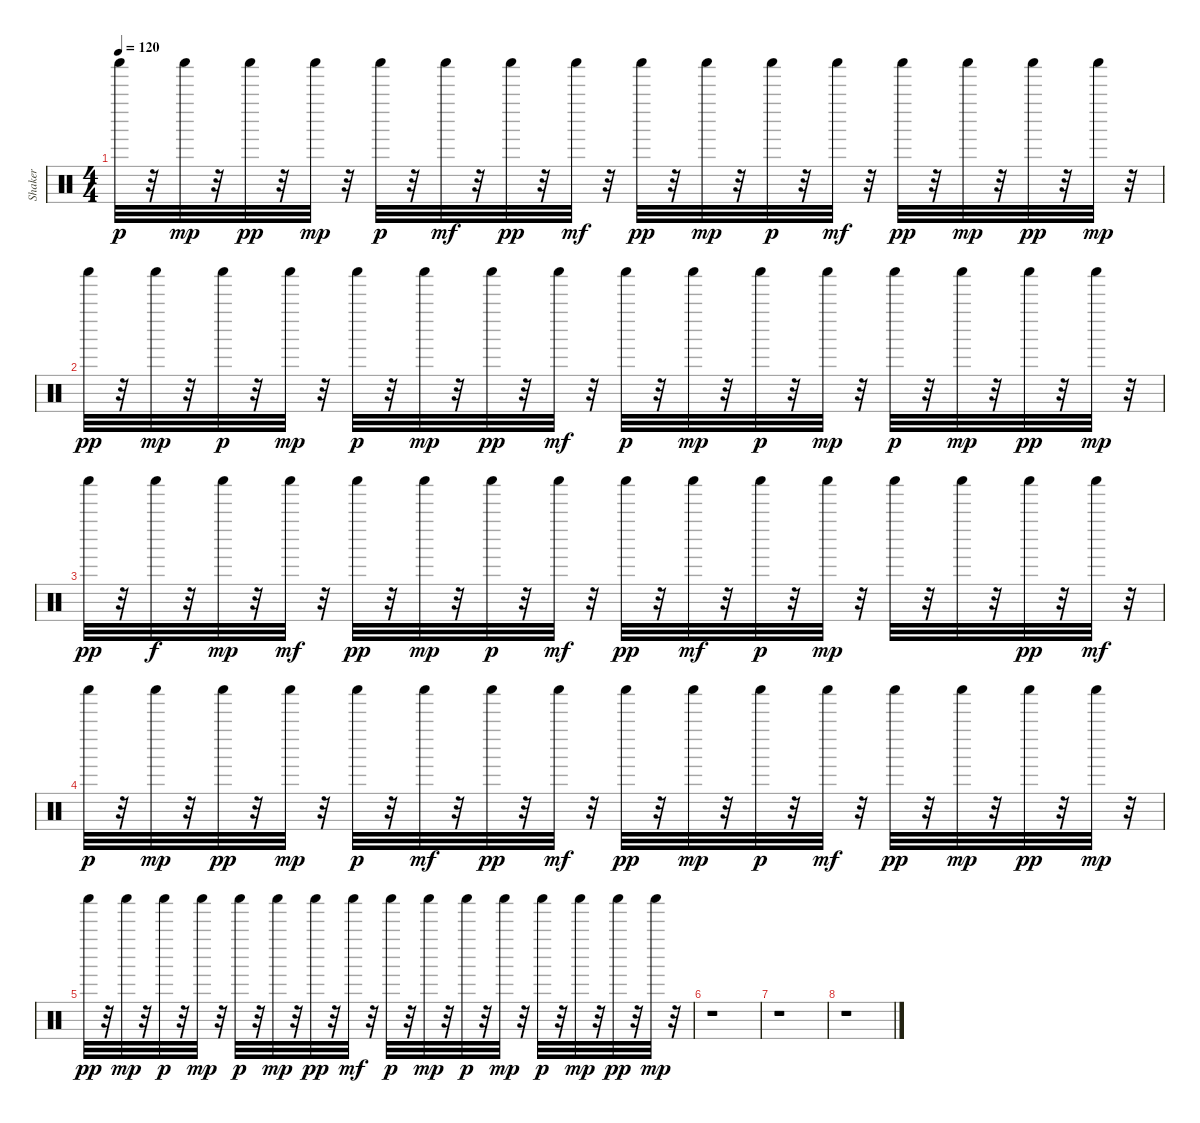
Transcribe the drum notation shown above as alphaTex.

\track ("Shaker" "Shaker") {instrument percussion}
\staff {score}
\articulation defaults
\ts (4 4)
\tempo 120
\clef neutral
\ks c "Shaker (hit)".32{dy p}
r.32 "Shaker (hit)".32{dy mp} r.32 "Shaker (hit)".32{dy pp} r.32 "Shaker (hit)".32{dy mp} r.32 "Shaker (hit)".32{dy p} r.32 "Shaker (hit)".32{dy mf} r.32 "Shaker (hit)".32{dy pp} r.32 "Shaker (hit)".32{dy mf} r.32 "Shaker (hit)".32{dy pp} r.32 "Shaker (hit)".32{dy mp} r.32 "Shaker (hit)".32{dy p} r.32 "Shaker (hit)".32{dy mf} r.32 "Shaker (hit)".32{dy pp} r.32 "Shaker (hit)".32{dy mp} r.32 "Shaker (hit)".32{dy pp} r.32 "Shaker (hit)".32{dy mp} r.32 |
"Shaker (hit)".32{dy pp} r.32 "Shaker (hit)".32{dy mp} r.32 "Shaker (hit)".32{dy p} r.32 "Shaker (hit)".32{dy mp} r.32 "Shaker (hit)".32{dy p} r.32 "Shaker (hit)".32{dy mp} r.32 "Shaker (hit)".32{dy pp} r.32 "Shaker (hit)".32{dy mf} r.32 "Shaker (hit)".32{dy p} r.32 "Shaker (hit)".32{dy mp} r.32 "Shaker (hit)".32{dy p} r.32 "Shaker (hit)".32{dy mp} r.32 "Shaker (hit)".32{dy p} r.32 "Shaker (hit)".32{dy mp} r.32 "Shaker (hit)".32{dy pp} r.32 "Shaker (hit)".32{dy mp} r.32 |
"Shaker (hit)".32{dy pp} r.32 "Shaker (hit)".32{dy f} r.32 "Shaker (hit)".32{dy mp} r.32 "Shaker (hit)".32{dy mf} r.32 "Shaker (hit)".32{dy pp} r.32 "Shaker (hit)".32{dy mp} r.32 "Shaker (hit)".32{dy p} r.32 "Shaker (hit)".32{dy mf} r.32 "Shaker (hit)".32{dy pp} r.32 "Shaker (hit)".32{dy mf} r.32 "Shaker (hit)".32{dy p} r.32 "Shaker (hit)".32{dy mp} r.32 "Shaker (hit)".32 r.32 "Shaker (hit)".32 r.32 "Shaker (hit)".32{dy pp} r.32 "Shaker (hit)".32{dy mf} r.32 |
"Shaker (hit)".32{dy p} r.32 "Shaker (hit)".32{dy mp} r.32 "Shaker (hit)".32{dy pp} r.32 "Shaker (hit)".32{dy mp} r.32 "Shaker (hit)".32{dy p} r.32 "Shaker (hit)".32{dy mf} r.32 "Shaker (hit)".32{dy pp} r.32 "Shaker (hit)".32{dy mf} r.32 "Shaker (hit)".32{dy pp} r.32 "Shaker (hit)".32{dy mp} r.32 "Shaker (hit)".32{dy p} r.32 "Shaker (hit)".32{dy mf} r.32 "Shaker (hit)".32{dy pp} r.32 "Shaker (hit)".32{dy mp} r.32 "Shaker (hit)".32{dy pp} r.32 "Shaker (hit)".32{dy mp} r.32 |
"Shaker (hit)".32{dy pp} r.32 "Shaker (hit)".32{dy mp} r.32 "Shaker (hit)".32{dy p} r.32 "Shaker (hit)".32{dy mp} r.32 "Shaker (hit)".32{dy p} r.32 "Shaker (hit)".32{dy mp} r.32 "Shaker (hit)".32{dy pp} r.32 "Shaker (hit)".32{dy mf} r.32 "Shaker (hit)".32{dy p} r.32 "Shaker (hit)".32{dy mp} r.32 "Shaker (hit)".32{dy p} r.32 "Shaker (hit)".32{dy mp} r.32 "Shaker (hit)".32{dy p} r.32 "Shaker (hit)".32{dy mp} r.32 "Shaker (hit)".32{dy pp} r.32 "Shaker (hit)".32{dy mp} r.32 |
r.1 |
r.1 |
r.1
